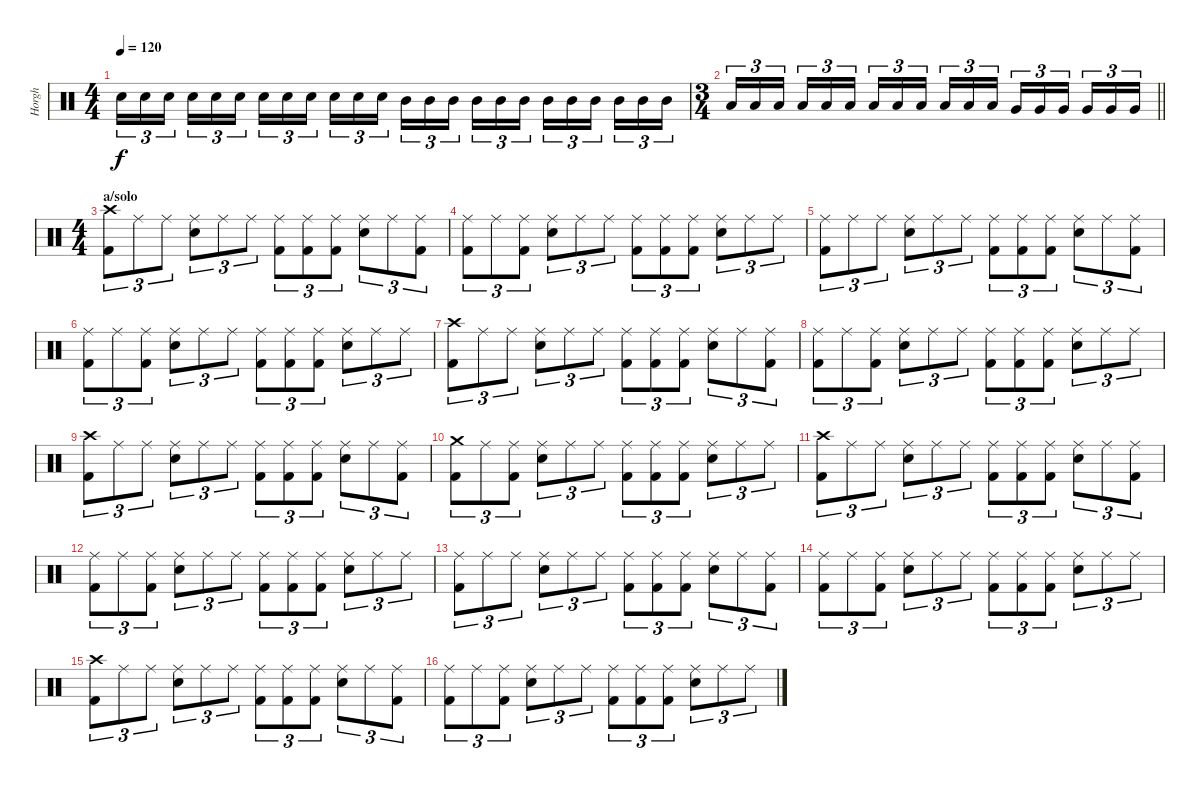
\track ("Horgh" "Horgh") {instrument percussion}
\staff {score}
\articulation defaults
\ts (4 4)
\tempo 120
\clef neutral
\ks c "Electric Snare (hit)".16{tu (3 2) dy f} "Electric Snare (hit)".16{tu (3 2)} "Electric Snare (hit)".16{tu (3 2) beam splitsecondary} "Electric Snare (hit)".16{tu (3 2)} "Electric Snare (hit)".16{tu (3 2)} "Electric Snare (hit)".16{tu (3 2)} "Electric Snare (hit)".16{tu (3 2)} "Electric Snare (hit)".16{tu (3 2)} "Electric Snare (hit)".16{tu (3 2) beam splitsecondary} "Electric Snare (hit)".16{tu (3 2)} "Electric Snare (hit)".16{tu (3 2)} "Electric Snare (hit)".16{tu (3 2)} "Mid Tom (hit)".16{tu (3 2)} "Mid Tom (hit)".16{tu (3 2)} "Mid Tom (hit)".16{tu (3 2) beam splitsecondary} "Mid Tom (hit)".16{tu (3 2)} "Mid Tom (hit)".16{tu (3 2)} "Mid Tom (hit)".16{tu (3 2)} "Mid Tom (hit)".16{tu (3 2)} "Mid Tom (hit)".16{tu (3 2)} "Mid Tom (hit)".16{tu (3 2) beam splitsecondary} "Mid Tom (hit)".16{tu (3 2)} "Mid Tom (hit)".16{tu (3 2)} "Mid Tom (hit)".16{tu (3 2)}
|
\ts (3 4)
\barLineRight lightlight "Low Tom (hit)".16{tu (3 2)} "Low Tom (hit)".16{tu (3 2)} "Low Tom (hit)".16{tu (3 2) beam splitsecondary} "Low Tom (hit)".16{tu (3 2)} "Low Tom (hit)".16{tu (3 2)} "Low Tom (hit)".16{tu (3 2)} "Low Tom (hit)".16{tu (3 2)} "Low Tom (hit)".16{tu (3 2)} "Low Tom (hit)".16{tu (3 2) beam splitsecondary} "Low Tom (hit)".16{tu (3 2)} "Low Tom (hit)".16{tu (3 2)} "Low Tom (hit)".16{tu (3 2)} "Very Low Tom (hit)".16{tu (3 2)} "Very Low Tom (hit)".16{tu (3 2)} "Very Low Tom (hit)".16{tu (3 2) beam splitsecondary} "Very Low Tom (hit)".16{tu (3 2)} "Very Low Tom (hit)".16{tu (3 2)} "Very Low Tom (hit)".16{tu (3 2)}
|
\ts (4 4)
\section ("" "a/solo")
("Crash high (hit)" "Kick (hit) 2").8{tu (3 2)} "Ride (middle)".8{tu (3 2)} "Ride (middle)".8{tu (3 2)} ("Ride (middle)" "Electric Snare (hit)").8{tu (3 2)} "Ride (middle)".8{tu (3 2)} "Ride (middle)".8{tu (3 2)} ("Ride (middle)" "Kick (hit) 2").8{tu (3 2)} ("Ride (middle)" "Kick (hit) 2").8{tu (3 2)} ("Ride (middle)" "Kick (hit) 2").8{tu (3 2)} ("Ride (middle)" "Electric Snare (hit)").8{tu (3 2)} "Ride (middle)".8{tu (3 2)} ("Ride (middle)" "Kick (hit) 2").8{tu (3 2)} |
("Ride (middle)" "Kick (hit) 2").8{tu (3 2)} "Ride (middle)".8{tu (3 2)} ("Ride (middle)" "Kick (hit) 2").8{tu (3 2)} ("Ride (middle)" "Electric Snare (hit)").8{tu (3 2)} "Ride (middle)".8{tu (3 2)} "Ride (middle)".8{tu (3 2)} ("Ride (middle)" "Kick (hit) 2").8{tu (3 2)} ("Ride (middle)" "Kick (hit) 2").8{tu (3 2)} ("Ride (middle)" "Kick (hit) 2").8{tu (3 2)} ("Ride (middle)" "Electric Snare (hit)").8{tu (3 2)} "Ride (middle)".8{tu (3 2)} "Ride (middle)".8{tu (3 2)} |
("Ride (middle)" "Kick (hit) 2").8{tu (3 2)} "Ride (middle)".8{tu (3 2)} "Ride (middle)".8{tu (3 2)} ("Ride (middle)" "Electric Snare (hit)").8{tu (3 2)} "Ride (middle)".8{tu (3 2)} "Ride (middle)".8{tu (3 2)} ("Ride (middle)" "Kick (hit) 2").8{tu (3 2)} ("Ride (middle)" "Kick (hit) 2").8{tu (3 2)} ("Ride (middle)" "Kick (hit) 2").8{tu (3 2)} ("Ride (middle)" "Electric Snare (hit)").8{tu (3 2)} "Ride (middle)".8{tu (3 2)} ("Ride (middle)" "Kick (hit) 2").8{tu (3 2)} |
("Ride (middle)" "Kick (hit) 2").8{tu (3 2)} "Ride (middle)".8{tu (3 2)} ("Ride (middle)" "Kick (hit) 2").8{tu (3 2)} ("Ride (middle)" "Electric Snare (hit)").8{tu (3 2)} "Ride (middle)".8{tu (3 2)} "Ride (middle)".8{tu (3 2)} ("Ride (middle)" "Kick (hit) 2").8{tu (3 2)} ("Ride (middle)" "Kick (hit) 2").8{tu (3 2)} ("Ride (middle)" "Kick (hit) 2").8{tu (3 2)} ("Ride (middle)" "Electric Snare (hit)").8{tu (3 2)} "Ride (middle)".8{tu (3 2)} "Ride (middle)".8{tu (3 2)} |
("Crash high (hit)" "Kick (hit) 2").8{tu (3 2)} "Ride (middle)".8{tu (3 2)} "Ride (middle)".8{tu (3 2)} ("Ride (middle)" "Electric Snare (hit)").8{tu (3 2)} "Ride (middle)".8{tu (3 2)} "Ride (middle)".8{tu (3 2)} ("Ride (middle)" "Kick (hit) 2").8{tu (3 2)} ("Ride (middle)" "Kick (hit) 2").8{tu (3 2)} ("Ride (middle)" "Kick (hit) 2").8{tu (3 2)} ("Ride (middle)" "Electric Snare (hit)").8{tu (3 2)} "Ride (middle)".8{tu (3 2)} ("Ride (middle)" "Kick (hit) 2").8{tu (3 2)} |
("Ride (middle)" "Kick (hit) 2").8{tu (3 2)} "Ride (middle)".8{tu (3 2)} ("Ride (middle)" "Kick (hit) 2").8{tu (3 2)} ("Ride (middle)" "Electric Snare (hit)").8{tu (3 2)} "Ride (middle)".8{tu (3 2)} "Ride (middle)".8{tu (3 2)} ("Ride (middle)" "Kick (hit) 2").8{tu (3 2)} ("Ride (middle)" "Kick (hit) 2").8{tu (3 2)} ("Ride (middle)" "Kick (hit) 2").8{tu (3 2)} ("Ride (middle)" "Electric Snare (hit)").8{tu (3 2)} "Ride (middle)".8{tu (3 2)} "Ride (middle)".8{tu (3 2)} |
("Crash high (hit)" "Kick (hit) 2").8{tu (3 2)} "Ride (middle)".8{tu (3 2)} "Ride (middle)".8{tu (3 2)} ("Ride (middle)" "Electric Snare (hit)").8{tu (3 2)} "Ride (middle)".8{tu (3 2)} "Ride (middle)".8{tu (3 2)} ("Ride (middle)" "Kick (hit) 2").8{tu (3 2)} ("Ride (middle)" "Kick (hit) 2").8{tu (3 2)} ("Ride (middle)" "Kick (hit) 2").8{tu (3 2)} ("Ride (middle)" "Electric Snare (hit)").8{tu (3 2)} "Ride (middle)".8{tu (3 2)} ("Ride (middle)" "Kick (hit) 2").8{tu (3 2)} |
("Crash medium (hit)" "Kick (hit) 2").8{tu (3 2)} "Ride (middle)".8{tu (3 2)} ("Ride (middle)" "Kick (hit) 2").8{tu (3 2)} ("Ride (middle)" "Electric Snare (hit)").8{tu (3 2)} "Ride (middle)".8{tu (3 2)} "Ride (middle)".8{tu (3 2)} ("Ride (middle)" "Kick (hit) 2").8{tu (3 2)} ("Ride (middle)" "Kick (hit) 2").8{tu (3 2)} ("Ride (middle)" "Kick (hit) 2").8{tu (3 2)} ("Ride (middle)" "Electric Snare (hit)").8{tu (3 2)} "Ride (middle)".8{tu (3 2)} "Ride (middle)".8{tu (3 2)} |
("Crash high (hit)" "Kick (hit) 2").8{tu (3 2)} "Ride (middle)".8{tu (3 2)} "Ride (middle)".8{tu (3 2)} ("Ride (middle)" "Electric Snare (hit)").8{tu (3 2)} "Ride (middle)".8{tu (3 2)} "Ride (middle)".8{tu (3 2)} ("Ride (middle)" "Kick (hit) 2").8{tu (3 2)} ("Ride (middle)" "Kick (hit) 2").8{tu (3 2)} ("Ride (middle)" "Kick (hit) 2").8{tu (3 2)} ("Ride (middle)" "Electric Snare (hit)").8{tu (3 2)} "Ride (middle)".8{tu (3 2)} ("Ride (middle)" "Kick (hit) 2").8{tu (3 2)} |
("Ride (middle)" "Kick (hit) 2").8{tu (3 2)} "Ride (middle)".8{tu (3 2)} ("Ride (middle)" "Kick (hit) 2").8{tu (3 2)} ("Ride (middle)" "Electric Snare (hit)").8{tu (3 2)} "Ride (middle)".8{tu (3 2)} "Ride (middle)".8{tu (3 2)} ("Ride (middle)" "Kick (hit) 2").8{tu (3 2)} ("Ride (middle)" "Kick (hit) 2").8{tu (3 2)} ("Ride (middle)" "Kick (hit) 2").8{tu (3 2)} ("Ride (middle)" "Electric Snare (hit)").8{tu (3 2)} "Ride (middle)".8{tu (3 2)} "Ride (middle)".8{tu (3 2)} |
("Ride (middle)" "Kick (hit) 2").8{tu (3 2)} "Ride (middle)".8{tu (3 2)} "Ride (middle)".8{tu (3 2)} ("Ride (middle)" "Electric Snare (hit)").8{tu (3 2)} "Ride (middle)".8{tu (3 2)} "Ride (middle)".8{tu (3 2)} ("Ride (middle)" "Kick (hit) 2").8{tu (3 2)} ("Ride (middle)" "Kick (hit) 2").8{tu (3 2)} ("Ride (middle)" "Kick (hit) 2").8{tu (3 2)} ("Ride (middle)" "Electric Snare (hit)").8{tu (3 2)} "Ride (middle)".8{tu (3 2)} ("Ride (middle)" "Kick (hit) 2").8{tu (3 2)} |
("Ride (middle)" "Kick (hit) 2").8{tu (3 2)} "Ride (middle)".8{tu (3 2)} ("Ride (middle)" "Kick (hit) 2").8{tu (3 2)} ("Ride (middle)" "Electric Snare (hit)").8{tu (3 2)} "Ride (middle)".8{tu (3 2)} "Ride (middle)".8{tu (3 2)} ("Ride (middle)" "Kick (hit) 2").8{tu (3 2)} ("Ride (middle)" "Kick (hit) 2").8{tu (3 2)} ("Ride (middle)" "Kick (hit) 2").8{tu (3 2)} ("Ride (middle)" "Electric Snare (hit)").8{tu (3 2)} "Ride (middle)".8{tu (3 2)} "Ride (middle)".8{tu (3 2)} |
("Crash high (hit)" "Kick (hit) 2").8{tu (3 2)} "Ride (middle)".8{tu (3 2)} "Ride (middle)".8{tu (3 2)} ("Ride (middle)" "Electric Snare (hit)").8{tu (3 2)} "Ride (middle)".8{tu (3 2)} "Ride (middle)".8{tu (3 2)} ("Ride (middle)" "Kick (hit) 2").8{tu (3 2)} ("Ride (middle)" "Kick (hit) 2").8{tu (3 2)} ("Ride (middle)" "Kick (hit) 2").8{tu (3 2)} ("Ride (middle)" "Electric Snare (hit)").8{tu (3 2)} "Ride (middle)".8{tu (3 2)} ("Ride (middle)" "Kick (hit) 2").8{tu (3 2)} |
("Ride (middle)" "Kick (hit) 2").8{tu (3 2)} "Ride (middle)".8{tu (3 2)} ("Ride (middle)" "Kick (hit) 2").8{tu (3 2)} ("Ride (middle)" "Electric Snare (hit)").8{tu (3 2)} "Ride (middle)".8{tu (3 2)} "Ride (middle)".8{tu (3 2)} ("Ride (middle)" "Kick (hit) 2").8{tu (3 2)} ("Ride (middle)" "Kick (hit) 2").8{tu (3 2)} ("Ride (middle)" "Kick (hit) 2").8{tu (3 2)} ("Ride (middle)" "Electric Snare (hit)").8{tu (3 2)} "Ride (middle)".8{tu (3 2)} "Ride (middle)".8{tu (3 2)}
